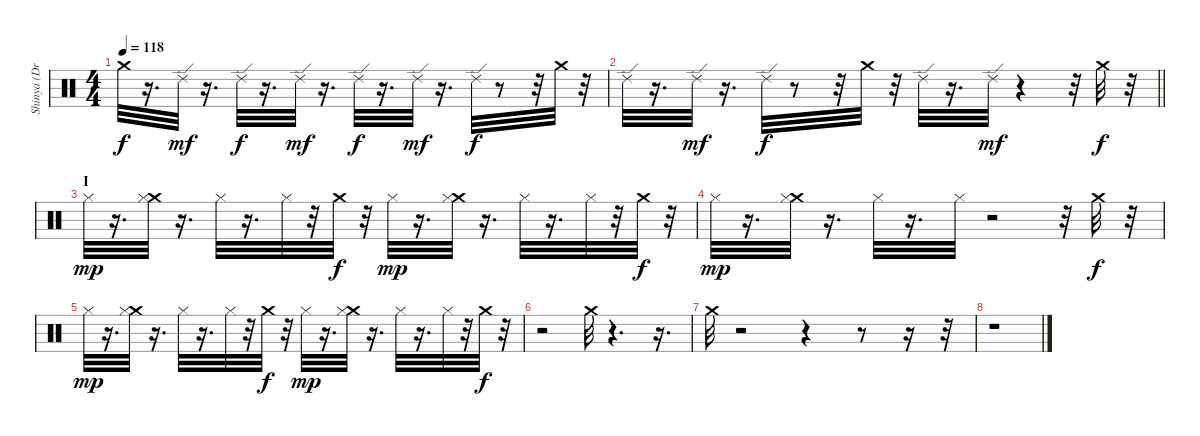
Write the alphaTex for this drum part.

\track ("Shinya (Drums)" "Shinya (Dr") {instrument percussion}
\staff {score}
\articulation defaults
\ts (4 4)
\tempo 118
\clef neutral
\ks c "Crash medium (hit)".32{dy f}
r.16{d} "Ride (edge) 2".32{dy mf} r.16{d} "Ride (edge) 2".32{dy f} r.16{d} "Ride (edge) 2".32{dy mf} r.16{d} "Ride (edge) 2".32{dy f} r.16{d} "Ride (edge) 2".32{dy mf} r.16{d} "Ride (edge) 2".32{dy f} r.8 r.32 "Crash medium (hit)".32 r.32 |
\barLineRight lightlight "Ride (edge) 2".32
r.16{d} "Ride (edge) 2".32{dy mf} r.16{d} "Ride (edge) 2".32{dy f} r.8 r.32 "Crash medium (hit)".32 r.32 "Ride (edge) 2".32 r.16{d} "Ride (edge) 2".32{dy mf} r.4 r.32 "Crash medium (hit)".32{dy f} r.32 |
\section ("" "I")
"Hi-Hat (closed)".32{dy mp} r.16{d} ("Crash medium (hit)" "Hi-Hat (closed)").32 r.16{d} "Hi-Hat (closed)".32 r.16{d} "Hi-Hat (closed)".32 r.32 "Crash medium (hit)".32{dy f} r.32 "Hi-Hat (closed)".32{dy mp} r.16{d} ("Crash medium (hit)" "Hi-Hat (closed)").32 r.16{d} "Hi-Hat (closed)".32 r.16{d} "Hi-Hat (closed)".32 r.32 "Crash medium (hit)".32{dy f} r.32 |
"Hi-Hat (closed)".32{dy mp} r.16{d} ("Crash medium (hit)" "Hi-Hat (closed)").32 r.16{d} "Hi-Hat (closed)".32 r.16{d} "Hi-Hat (closed)".32 r.2 r.32 "Crash medium (hit)".32{dy f} r.32 |
"Hi-Hat (closed)".32{dy mp} r.16{d} ("Crash medium (hit)" "Hi-Hat (closed)").32 r.16{d} "Hi-Hat (closed)".32 r.16{d} "Hi-Hat (closed)".32 r.32 "Crash medium (hit)".32{dy f} r.32 "Hi-Hat (closed)".32{dy mp} r.16{d} ("Crash medium (hit)" "Hi-Hat (closed)").32 r.16{d} "Hi-Hat (closed)".32 r.16{d} "Hi-Hat (closed)".32 r.32 "Crash medium (hit)".32{dy f} r.32 |
r.2 "Crash medium (hit)".32 r.4{d} r.16{d} |
"Crash medium (hit)".32 r.2 r.4 r.8 r.16 r.32 |
r.1
